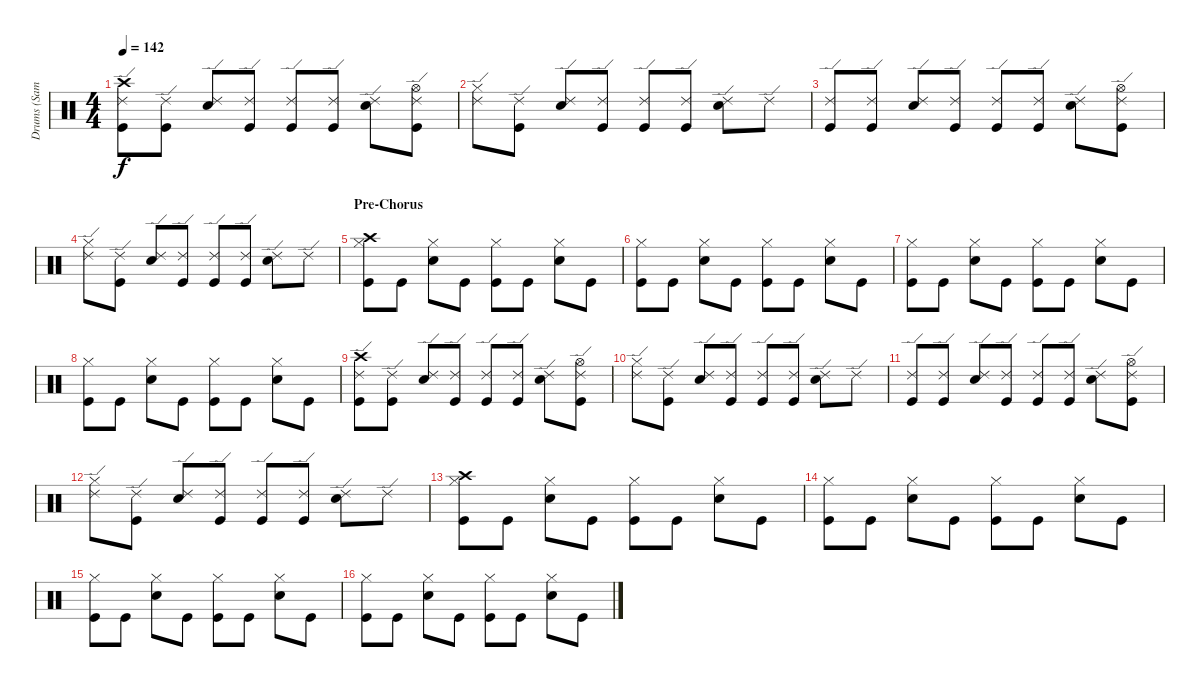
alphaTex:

\track ("Drums (Sam)" "Drums (Sam") {instrument percussion}
\staff {score}
\articulation defaults
\ts (4 4)
\tempo 142
\clef neutral
\ks c
("Crash high (hit)" "Ride (edge) 2" "Kick (hit)").8{dy f} ("Ride (edge) 2" "Kick (hit)").8 ("Ride (edge) 2" "Snare (hit) 2").8 ("Ride (edge) 2" "Kick (hit)").8 ("Ride (edge) 2" "Kick (hit)").8 ("Ride (edge) 2" "Kick (hit)").8 ("Ride (edge) 2" "Snare (hit) 2").8 ("Hi-Hat (open)" "Ride (edge) 2" "Kick (hit)").8 |
("Hi-Hat (closed)" "Ride (edge) 2").8 ("Ride (edge) 2" "Kick (hit)").8 ("Ride (edge) 2" "Snare (hit) 2").8 ("Ride (edge) 2" "Kick (hit)").8 ("Ride (edge) 2" "Kick (hit)").8 ("Ride (edge) 2" "Kick (hit)").8 ("Ride (edge) 2" "Snare (hit) 2").8 "Ride (edge) 2".8 |
("Ride (edge) 2" "Kick (hit)").8 ("Ride (edge) 2" "Kick (hit)").8 ("Ride (edge) 2" "Snare (hit) 2").8 ("Ride (edge) 2" "Kick (hit)").8 ("Ride (edge) 2" "Kick (hit)").8 ("Ride (edge) 2" "Kick (hit)").8 ("Ride (edge) 2" "Snare (hit) 2").8 ("Hi-Hat (open)" "Ride (edge) 2" "Kick (hit)").8 |
("Hi-Hat (closed)" "Ride (edge) 2").8 ("Ride (edge) 2" "Kick (hit)").8 ("Ride (edge) 2" "Snare (hit) 2").8 ("Ride (edge) 2" "Kick (hit)").8 ("Ride (edge) 2" "Kick (hit)").8 ("Ride (edge) 2" "Kick (hit)").8 ("Ride (edge) 2" "Snare (hit) 2").8 "Ride (edge) 2".8 |
\section ("" "Pre-Chorus")
("Crash high (hit)" "Hi-Hat (closed)" "Kick (hit)").8 "Kick (hit)".8 ("Hi-Hat (closed)" "Snare (hit) 2").8 "Kick (hit)".8 ("Hi-Hat (closed)" "Kick (hit)").8 "Kick (hit)".8 ("Hi-Hat (closed)" "Snare (hit) 2").8 "Kick (hit)".8 |
("Hi-Hat (closed)" "Kick (hit)").8 "Kick (hit)".8 ("Hi-Hat (closed)" "Snare (hit) 2").8 "Kick (hit)".8 ("Hi-Hat (closed)" "Kick (hit)").8 "Kick (hit)".8 ("Hi-Hat (closed)" "Snare (hit) 2").8 "Kick (hit)".8 |
("Hi-Hat (closed)" "Kick (hit)").8 "Kick (hit)".8 ("Hi-Hat (closed)" "Snare (hit) 2").8 "Kick (hit)".8 ("Hi-Hat (closed)" "Kick (hit)").8 "Kick (hit)".8 ("Hi-Hat (closed)" "Snare (hit) 2").8 "Kick (hit)".8 |
("Hi-Hat (closed)" "Kick (hit)").8 "Kick (hit)".8 ("Hi-Hat (closed)" "Snare (hit) 2").8 "Kick (hit)".8 ("Hi-Hat (closed)" "Kick (hit)").8 "Kick (hit)".8 ("Hi-Hat (closed)" "Snare (hit) 2").8 "Kick (hit)".8 |
("Crash high (hit)" "Ride (edge) 2" "Kick (hit)").8 ("Ride (edge) 2" "Kick (hit)").8 ("Ride (edge) 2" "Snare (hit) 2").8 ("Ride (edge) 2" "Kick (hit)").8 ("Ride (edge) 2" "Kick (hit)").8 ("Ride (edge) 2" "Kick (hit)").8 ("Ride (edge) 2" "Snare (hit) 2").8 ("Hi-Hat (open)" "Ride (edge) 2" "Kick (hit)").8 |
("Hi-Hat (closed)" "Ride (edge) 2").8 ("Ride (edge) 2" "Kick (hit)").8 ("Ride (edge) 2" "Snare (hit) 2").8 ("Ride (edge) 2" "Kick (hit)").8 ("Ride (edge) 2" "Kick (hit)").8 ("Ride (edge) 2" "Kick (hit)").8 ("Ride (edge) 2" "Snare (hit) 2").8 "Ride (edge) 2".8 |
("Ride (edge) 2" "Kick (hit)").8 ("Ride (edge) 2" "Kick (hit)").8 ("Ride (edge) 2" "Snare (hit) 2").8 ("Ride (edge) 2" "Kick (hit)").8 ("Ride (edge) 2" "Kick (hit)").8 ("Ride (edge) 2" "Kick (hit)").8 ("Ride (edge) 2" "Snare (hit) 2").8 ("Hi-Hat (open)" "Ride (edge) 2" "Kick (hit)").8 |
("Hi-Hat (closed)" "Ride (edge) 2").8 ("Ride (edge) 2" "Kick (hit)").8 ("Ride (edge) 2" "Snare (hit) 2").8 ("Ride (edge) 2" "Kick (hit)").8 ("Ride (edge) 2" "Kick (hit)").8 ("Ride (edge) 2" "Kick (hit)").8 ("Ride (edge) 2" "Snare (hit) 2").8 "Ride (edge) 2".8 |
("Crash high (hit)" "Hi-Hat (closed)" "Kick (hit)").8 "Kick (hit)".8 ("Hi-Hat (closed)" "Snare (hit) 2").8 "Kick (hit)".8 ("Hi-Hat (closed)" "Kick (hit)").8 "Kick (hit)".8 ("Hi-Hat (closed)" "Snare (hit) 2").8 "Kick (hit)".8 |
("Hi-Hat (closed)" "Kick (hit)").8 "Kick (hit)".8 ("Hi-Hat (closed)" "Snare (hit) 2").8 "Kick (hit)".8 ("Hi-Hat (closed)" "Kick (hit)").8 "Kick (hit)".8 ("Hi-Hat (closed)" "Snare (hit) 2").8 "Kick (hit)".8 |
("Hi-Hat (closed)" "Kick (hit)").8 "Kick (hit)".8 ("Hi-Hat (closed)" "Snare (hit) 2").8 "Kick (hit)".8 ("Hi-Hat (closed)" "Kick (hit)").8 "Kick (hit)".8 ("Hi-Hat (closed)" "Snare (hit) 2").8 "Kick (hit)".8 |
("Hi-Hat (closed)" "Kick (hit)").8 "Kick (hit)".8 ("Hi-Hat (closed)" "Snare (hit) 2").8 "Kick (hit)".8 ("Hi-Hat (closed)" "Kick (hit)").8 "Kick (hit)".8 ("Hi-Hat (closed)" "Snare (hit) 2").8 "Kick (hit)".8
